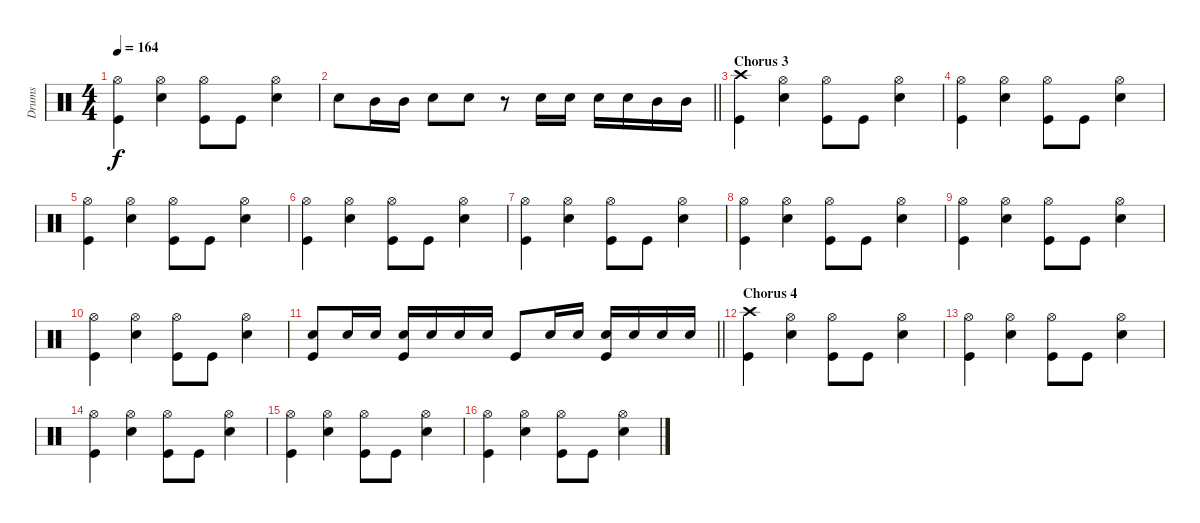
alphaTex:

\track ("Drums" "Drums") {instrument percussion}
\staff {score}
\articulation defaults
\ts (4 4)
\tempo 164
\clef neutral
\ks c
("Hi-Hat (open)" "Kick (hit)").4{dy f} ("Hi-Hat (open)" "Snare (hit) 2").4 ("Kick (hit)" "Hi-Hat (open)").8 "Kick (hit)".8 ("Hi-Hat (open)" "Snare (hit) 2").4 |
\barLineRight lightlight "Snare (hit) 2".8 "Mid Tom (hit)".16 "Mid Tom (hit)".16 "Snare (hit) 2".8 "Snare (hit) 2".8
r.8 "Snare (hit) 2".16 "Snare (hit) 2".16 "Snare (hit) 2".16 "Snare (hit) 2".16 "Mid Tom (hit)".16 "Mid Tom (hit)".16 |
\section ("" "Chorus 3")
("Crash high (hit)" "Kick (hit)").4 ("Hi-Hat (open)" "Snare (hit) 2").4 ("Kick (hit)" "Hi-Hat (open)").8 "Kick (hit)".8 ("Hi-Hat (open)" "Snare (hit) 2").4 |
("Hi-Hat (open)" "Kick (hit)").4 ("Hi-Hat (open)" "Snare (hit) 2").4 ("Kick (hit)" "Hi-Hat (open)").8 "Kick (hit)".8 ("Hi-Hat (open)" "Snare (hit) 2").4 |
("Hi-Hat (open)" "Kick (hit)").4 ("Hi-Hat (open)" "Snare (hit) 2").4 ("Kick (hit)" "Hi-Hat (open)").8 "Kick (hit)".8 ("Hi-Hat (open)" "Snare (hit) 2").4 |
("Hi-Hat (open)" "Kick (hit)").4 ("Hi-Hat (open)" "Snare (hit) 2").4 ("Kick (hit)" "Hi-Hat (open)").8 "Kick (hit)".8 ("Hi-Hat (open)" "Snare (hit) 2").4 |
("Hi-Hat (open)" "Kick (hit)").4 ("Hi-Hat (open)" "Snare (hit) 2").4 ("Kick (hit)" "Hi-Hat (open)").8 "Kick (hit)".8 ("Hi-Hat (open)" "Snare (hit) 2").4 |
("Hi-Hat (open)" "Kick (hit)").4 ("Hi-Hat (open)" "Snare (hit) 2").4 ("Kick (hit)" "Hi-Hat (open)").8 "Kick (hit)".8 ("Hi-Hat (open)" "Snare (hit) 2").4 |
("Hi-Hat (open)" "Kick (hit)").4 ("Hi-Hat (open)" "Snare (hit) 2").4 ("Kick (hit)" "Hi-Hat (open)").8 "Kick (hit)".8 ("Hi-Hat (open)" "Snare (hit) 2").4 |
("Hi-Hat (open)" "Kick (hit)").4 ("Hi-Hat (open)" "Snare (hit) 2").4 ("Kick (hit)" "Hi-Hat (open)").8 "Kick (hit)".8 ("Hi-Hat (open)" "Snare (hit) 2").4 |
\barLineRight lightlight
("Snare (hit) 2" "Kick (hit)").8 "Snare (hit) 2".16 "Snare (hit) 2".16 ("Snare (hit) 2" "Kick (hit)").16 "Snare (hit) 2".16 "Snare (hit) 2".16 "Snare (hit) 2".16 "Kick (hit)".8 "Snare (hit) 2".16 "Snare (hit) 2".16 ("Kick (hit)" "Snare (hit) 2").16 "Snare (hit) 2".16 "Snare (hit) 2".16 "Snare (hit) 2".16 |
\section ("" "Chorus 4")
("Crash high (hit)" "Kick (hit)").4 ("Hi-Hat (open)" "Snare (hit) 2").4 ("Kick (hit)" "Hi-Hat (open)").8 "Kick (hit)".8 ("Hi-Hat (open)" "Snare (hit) 2").4 |
("Hi-Hat (open)" "Kick (hit)").4 ("Hi-Hat (open)" "Snare (hit) 2").4 ("Kick (hit)" "Hi-Hat (open)").8 "Kick (hit)".8 ("Hi-Hat (open)" "Snare (hit) 2").4 |
("Hi-Hat (open)" "Kick (hit)").4 ("Hi-Hat (open)" "Snare (hit) 2").4 ("Kick (hit)" "Hi-Hat (open)").8 "Kick (hit)".8 ("Hi-Hat (open)" "Snare (hit) 2").4 |
("Hi-Hat (open)" "Kick (hit)").4 ("Hi-Hat (open)" "Snare (hit) 2").4 ("Kick (hit)" "Hi-Hat (open)").8 "Kick (hit)".8 ("Hi-Hat (open)" "Snare (hit) 2").4 |
("Hi-Hat (open)" "Kick (hit)").4 ("Hi-Hat (open)" "Snare (hit) 2").4 ("Kick (hit)" "Hi-Hat (open)").8 "Kick (hit)".8 ("Hi-Hat (open)" "Snare (hit) 2").4
